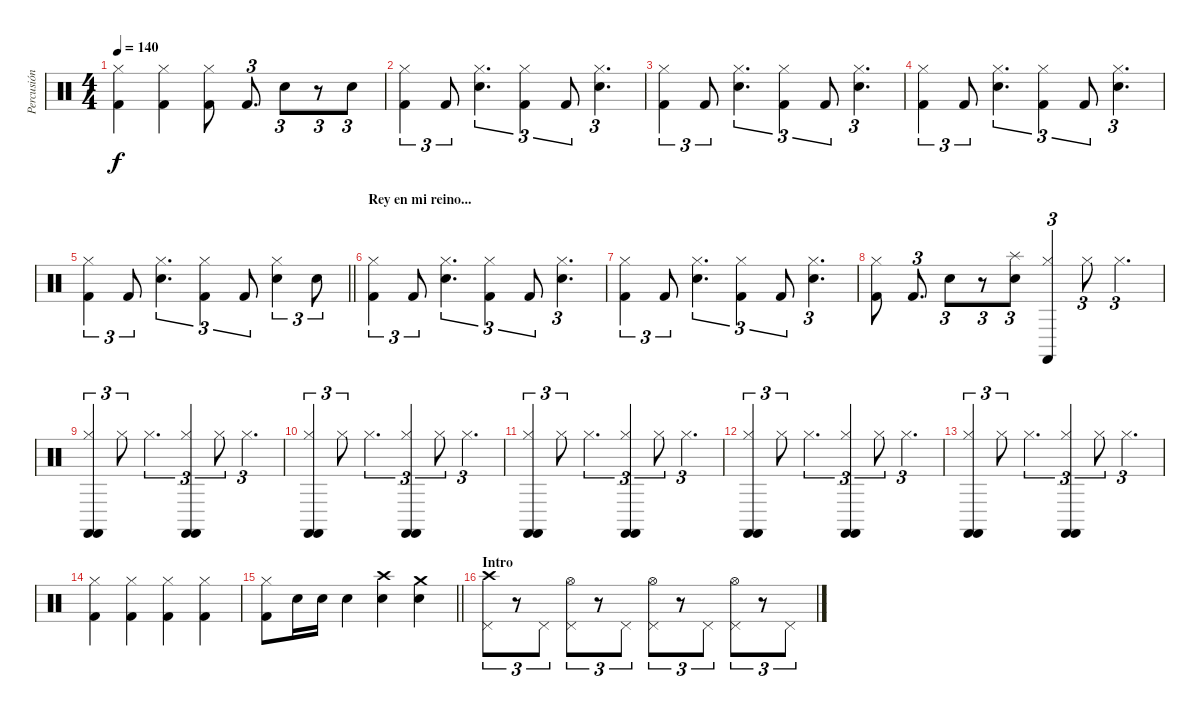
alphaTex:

\track ("Percusión" "Percusión") {instrument percussion}
\staff {score}
\articulation defaults
\ts (4 4)
\tempo 140
\clef neutral
\ks c
("Hi-Hat (closed)" "Kick (hit) 2").4{dy f} ("Hi-Hat (closed)" "Kick (hit) 2").4 ("Hi-Hat (closed)" "Kick (hit) 2").8 "Kick (hit) 2".8{d tu (3 2)} "Snare (hit) 2".8{tu (3 2)} r.8{tu (3 2)} "Snare (hit) 2".8{tu (3 2)} |
("Hi-Hat (closed)" "Kick (hit) 2").4{tu (3 2)} "Kick (hit) 2".8{tu (3 2)} ("Hi-Hat (closed)" "Snare (hit) 2").4{d tu (3 2)} ("Hi-Hat (closed)" "Kick (hit) 2").4{tu (3 2)} "Kick (hit) 2".8{tu (3 2)} ("Hi-Hat (closed)" "Snare (hit) 2").4{d tu (3 2)} |
("Hi-Hat (closed)" "Kick (hit) 2").4{tu (3 2)} "Kick (hit) 2".8{tu (3 2)} ("Hi-Hat (closed)" "Snare (hit) 2").4{d tu (3 2)} ("Hi-Hat (closed)" "Kick (hit) 2").4{tu (3 2)} "Kick (hit) 2".8{tu (3 2)} ("Hi-Hat (closed)" "Snare (hit) 2").4{d tu (3 2)} |
("Hi-Hat (closed)" "Kick (hit) 2").4{tu (3 2)} "Kick (hit) 2".8{tu (3 2)} ("Hi-Hat (closed)" "Snare (hit) 2").4{d tu (3 2)} ("Hi-Hat (closed)" "Kick (hit) 2").4{tu (3 2)} "Kick (hit) 2".8{tu (3 2)} ("Hi-Hat (closed)" "Snare (hit) 2").4{d tu (3 2)} |
\barLineRight lightlight
("Hi-Hat (closed)" "Kick (hit) 2").4{tu (3 2)} "Kick (hit) 2".8{tu (3 2)} ("Hi-Hat (closed)" "Snare (hit) 2").4{d tu (3 2)} ("Hi-Hat (closed)" "Kick (hit) 2").4{tu (3 2)} "Kick (hit) 2".8{tu (3 2)} ("Hi-Hat (closed)" "Snare (hit) 2").4{tu (3 2)} "Snare (hit) 2".8{tu (3 2)} |
\section ("" "Rey en mi reino...")
("Hi-Hat (closed)" "Kick (hit) 2").4{tu (3 2)} "Kick (hit) 2".8{tu (3 2)} ("Hi-Hat (closed)" "Snare (hit) 2").4{d tu (3 2)} ("Hi-Hat (closed)" "Kick (hit) 2").4{tu (3 2)} "Kick (hit) 2".8{tu (3 2)} ("Hi-Hat (closed)" "Snare (hit) 2").4{d tu (3 2)} |
("Hi-Hat (closed)" "Kick (hit) 2").4{tu (3 2)} "Kick (hit) 2".8{tu (3 2)} ("Hi-Hat (closed)" "Snare (hit) 2").4{d tu (3 2)} ("Hi-Hat (closed)" "Kick (hit) 2").4{tu (3 2)} "Kick (hit) 2".8{tu (3 2)} ("Hi-Hat (closed)" "Snare (hit) 2").4{d tu (3 2)} |
("Hi-Hat (closed)" "Kick (hit) 2").8 "Kick (hit) 2".8{d tu (3 2)} "Snare (hit) 2".8{tu (3 2)} r.8{tu (3 2)} ("Splash (hit)" "Snare (hit) 2").8{tu (3 2)} ("Hi-Hat (closed)" "Castanets (hit)").4{tu (3 2)} "Hi-Hat (closed)".8{tu (3 2)} "Hi-Hat (closed)".4{d tu (3 2)} |
("Hi-Hat (closed)" "Castanets (hit)" "Castanets (hit)").4{tu (3 2)} "Hi-Hat (closed)".8{tu (3 2)} "Hi-Hat (closed)".4{d tu (3 2)} ("Hi-Hat (closed)" "Castanets (hit)" "Castanets (hit)").4{tu (3 2)} "Hi-Hat (closed)".8{tu (3 2)} "Hi-Hat (closed)".4{d tu (3 2)} |
("Hi-Hat (closed)" "Castanets (hit)" "Castanets (hit)").4{tu (3 2)} "Hi-Hat (closed)".8{tu (3 2)} "Hi-Hat (closed)".4{d tu (3 2)} ("Hi-Hat (closed)" "Castanets (hit)" "Castanets (hit)").4{tu (3 2)} "Hi-Hat (closed)".8{tu (3 2)} "Hi-Hat (closed)".4{d tu (3 2)} |
("Hi-Hat (closed)" "Castanets (hit)" "Castanets (hit)").4{tu (3 2)} "Hi-Hat (closed)".8{tu (3 2)} "Hi-Hat (closed)".4{d tu (3 2)} ("Hi-Hat (closed)" "Castanets (hit)" "Castanets (hit)").4{tu (3 2)} "Hi-Hat (closed)".8{tu (3 2)} "Hi-Hat (closed)".4{d tu (3 2)} |
("Hi-Hat (closed)" "Castanets (hit)" "Castanets (hit)").4{tu (3 2)} "Hi-Hat (closed)".8{tu (3 2)} "Hi-Hat (closed)".4{d tu (3 2)} ("Hi-Hat (closed)" "Castanets (hit)" "Castanets (hit)").4{tu (3 2)} "Hi-Hat (closed)".8{tu (3 2)} "Hi-Hat (closed)".4{d tu (3 2)} |
("Hi-Hat (closed)" "Castanets (hit)" "Castanets (hit)").4{tu (3 2)} "Hi-Hat (closed)".8{tu (3 2)} "Hi-Hat (closed)".4{d tu (3 2)} ("Hi-Hat (closed)" "Castanets (hit)" "Castanets (hit)").4{tu (3 2)} "Hi-Hat (closed)".8{tu (3 2)} "Hi-Hat (closed)".4{d tu (3 2)} |
("Hi-Hat (closed)" "Kick (hit) 2").4 ("Hi-Hat (closed)" "Kick (hit) 2").4 ("Hi-Hat (closed)" "Kick (hit) 2").4 ("Hi-Hat (closed)" "Kick (hit) 2").4 |
\barLineRight lightlight
("Hi-Hat (closed)" "Kick (hit) 2").8 "Snare (hit) 2".16 "Snare (hit) 2".16 "Snare (hit) 2".4 ("Crash high (hit)" "Snare (hit) 2").4 ("Crash medium (hit)" "Snare (hit) 2").4 |
\section ("" "Intro")
("Crash high (hit)" "Pedal Hi-Hat (hit)").8{tu (3 2)} r.8{tu (3 2)} "Pedal Hi-Hat (hit)".8{tu (3 2)} ("Hi-Hat (open)" "Pedal Hi-Hat (hit)").8{tu (3 2)} r.8{tu (3 2)} "Pedal Hi-Hat (hit)".8{tu (3 2)} ("Hi-Hat (open)" "Pedal Hi-Hat (hit)").8{tu (3 2)} r.8{tu (3 2)} "Pedal Hi-Hat (hit)".8{tu (3 2)} ("Hi-Hat (open)" "Pedal Hi-Hat (hit)").8{tu (3 2)} r.8{tu (3 2)} "Pedal Hi-Hat (hit)".8{tu (3 2)}
